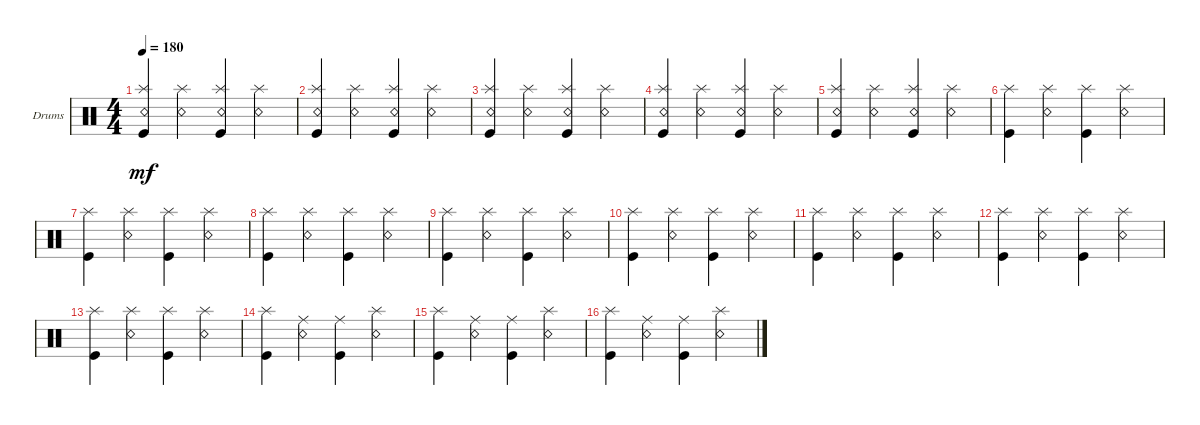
\defaultSystemsLayout 4
\bracketExtendMode groupsimilarinstruments
\firstSystemTrackNameOrientation horizontal
\otherSystemsTrackNameOrientation horizontal
\track ("Drumkit" "Drums") {instrument percussion}
\staff {score}
\articulation defaults
\ts (4 4)
\tempo 180
\clef neutral
\scale
0.333333
\ks c
("Kick (hit)" "Splash (hit)" "Snare (rim shot)").4{dy mf} ("Snare (rim shot)" "Splash (hit)").4 ("Kick (hit)" "Splash (hit)" "Snare (rim shot)").4 ("Snare (rim shot)" "Splash (hit)").4 |
\scale
0.333333 ("Kick (hit)" "Splash (hit)" "Snare (rim shot)").4 ("Snare (rim shot)" "Splash (hit)").4 ("Kick (hit)" "Splash (hit)" "Snare (rim shot)").4 ("Snare (rim shot)" "Splash (hit)").4 |
\scale
0.333333 ("Kick (hit)" "Splash (hit)" "Snare (rim shot)").4 ("Snare (rim shot)" "Splash (hit)").4 ("Kick (hit)" "Splash (hit)" "Snare (rim shot)").4 ("Snare (rim shot)" "Splash (hit)").4 |
\scale
0.333333 ("Kick (hit)" "Splash (hit)" "Snare (rim shot)").4 ("Snare (rim shot)" "Splash (hit)").4 ("Kick (hit)" "Splash (hit)" "Snare (rim shot)").4 ("Snare (rim shot)" "Splash (hit)").4 |
\scale
0.333333 ("Kick (hit)" "Splash (hit)" "Snare (rim shot)").4 ("Snare (rim shot)" "Splash (hit)").4 ("Kick (hit)" "Splash (hit)" "Snare (rim shot)").4 ("Snare (rim shot)" "Splash (hit)").4 |
\scale
0.333333 ("Kick (hit)" "Splash (hit)").4 ("Snare (rim shot)" "Splash (hit)").4 ("Kick (hit)" "Splash (hit)").4 ("Snare (rim shot)" "Splash (hit)").4 |
\scale
0.333333 ("Kick (hit)" "Splash (hit)").4 ("Snare (rim shot)" "Splash (hit)").4 ("Kick (hit)" "Splash (hit)").4 ("Snare (rim shot)" "Splash (hit)").4 |
\scale
0.333333 ("Kick (hit)" "Splash (hit)").4 ("Snare (rim shot)" "Splash (hit)").4 ("Kick (hit)" "Splash (hit)").4 ("Snare (rim shot)" "Splash (hit)").4 |
\scale
0.333333 ("Kick (hit)" "Splash (hit)").4 ("Snare (rim shot)" "Splash (hit)").4 ("Kick (hit)" "Splash (hit)").4 ("Snare (rim shot)" "Splash (hit)").4 |
\scale
0.333333 ("Kick (hit)" "Splash (hit)").4 ("Snare (rim shot)" "Splash (hit)").4 ("Kick (hit)" "Splash (hit)").4 ("Snare (rim shot)" "Splash (hit)").4 |
\scale
0.333333 ("Kick (hit)" "Splash (hit)").4 ("Snare (rim shot)" "Splash (hit)").4 ("Kick (hit)" "Splash (hit)").4 ("Snare (rim shot)" "Splash (hit)").4 |
\scale
0.333333 ("Kick (hit)" "Splash (hit)").4 ("Snare (rim shot)" "Splash (hit)").4 ("Kick (hit)" "Splash (hit)").4 ("Snare (rim shot)" "Splash (hit)").4 |
\scale
0.333333 ("Kick (hit)" "Splash (hit)").4 ("Snare (rim shot)" "Splash (hit)").4 ("Kick (hit)" "Splash (hit)").4 ("Snare (rim shot)" "Splash (hit)").4 |
\scale
0.333333 ("Kick (hit)" "Splash (hit)").4 ("Snare (rim shot)" "Ride (middle)").4 ("Kick (hit)" "Ride (middle)").4 ("Snare (rim shot)" "Splash (hit)").4 |
\scale
0.333333 ("Kick (hit)" "Splash (hit)").4 ("Snare (rim shot)" "Ride (middle)").4 ("Kick (hit)" "Ride (middle)").4 ("Snare (rim shot)" "Splash (hit)").4 |
\scale
0.333333 ("Kick (hit)" "Splash (hit)").4 ("Snare (rim shot)" "Ride (middle)").4 ("Kick (hit)" "Ride (middle)").4 ("Snare (rim shot)" "Splash (hit)").4
